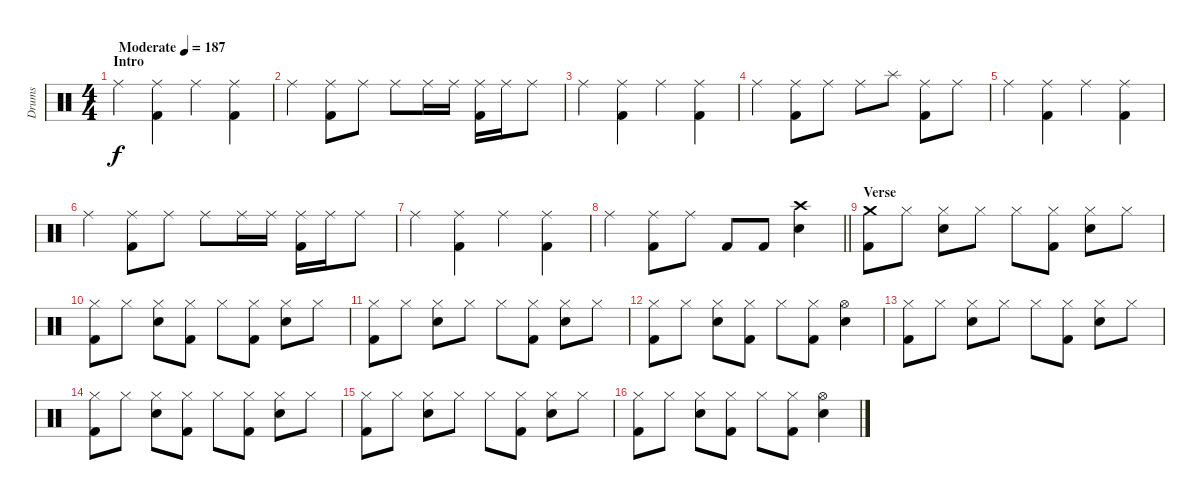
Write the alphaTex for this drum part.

\track ("Drums" "Drums") {instrument percussion}
\staff {score}
\articulation defaults
\ts (4 4)
\section ("" "Intro")
\tempo (187 "Moderate")
\clef neutral
\ks c "Ride (middle)".4{dy f}
("Ride (middle)" "Kick (hit) 2").4 "Ride (middle)".4 ("Ride (middle)" "Kick (hit) 2").4 |
"Ride (middle)".4 ("Ride (middle)" "Kick (hit) 2").8 "Ride (middle)".8 "Ride (middle)".8 "Ride (middle)".16 "Ride (middle)".16 ("Ride (middle)" "Kick (hit) 2").16 "Ride (middle)".16 "Ride (middle)".8 |
"Ride (middle)".4 ("Ride (middle)" "Kick (hit) 2").4 "Ride (middle)".4 ("Ride (middle)" "Kick (hit) 2").4 |
"Ride (middle)".4 ("Ride (middle)" "Kick (hit) 2").8 "Ride (middle)".8 "Ride (middle)".8 "Splash (hit)".8 ("Ride (middle)" "Kick (hit) 2").8 "Ride (middle)".8 |
"Ride (middle)".4 ("Ride (middle)" "Kick (hit) 2").4 "Ride (middle)".4 ("Ride (middle)" "Kick (hit) 2").4 |
"Ride (middle)".4 ("Ride (middle)" "Kick (hit) 2").8 "Ride (middle)".8 "Ride (middle)".8 "Ride (middle)".16 "Ride (middle)".16 ("Ride (middle)" "Kick (hit) 2").16 "Ride (middle)".16 "Ride (middle)".8 |
"Ride (middle)".4 ("Ride (middle)" "Kick (hit) 2").4 "Ride (middle)".4 ("Ride (middle)" "Kick (hit) 2").4 |
\barLineRight lightlight "Ride (middle)".4
("Ride (middle)" "Kick (hit) 2").8 "Ride (middle)".8 "Kick (hit) 2".8 "Kick (hit) 2".8 ("Crash high (hit)" "Electric Snare (hit)").4 |
\section ("" "Verse")
("Crash medium (hit)" "Kick (hit) 2").8 "Hi-Hat (closed)".8 ("Hi-Hat (closed)" "Electric Snare (hit)").8 "Hi-Hat (closed)".8 "Hi-Hat (closed)".8 ("Hi-Hat (closed)" "Kick (hit) 2").8 ("Hi-Hat (closed)" "Electric Snare (hit)").8 "Hi-Hat (closed)".8 |
("Hi-Hat (closed)" "Kick (hit) 2").8 "Hi-Hat (closed)".8 ("Hi-Hat (closed)" "Electric Snare (hit)").8 ("Hi-Hat (closed)" "Kick (hit) 2").8 "Hi-Hat (closed)".8 ("Hi-Hat (closed)" "Kick (hit) 2").8 ("Hi-Hat (closed)" "Electric Snare (hit)").8 "Hi-Hat (closed)".8 |
("Hi-Hat (closed)" "Kick (hit) 2").8 "Hi-Hat (closed)".8 ("Hi-Hat (closed)" "Electric Snare (hit)").8 "Hi-Hat (closed)".8 "Hi-Hat (closed)".8 ("Hi-Hat (closed)" "Kick (hit) 2").8 ("Hi-Hat (closed)" "Electric Snare (hit)").8 "Hi-Hat (closed)".8 |
("Hi-Hat (closed)" "Kick (hit) 2").8 "Hi-Hat (closed)".8 ("Hi-Hat (closed)" "Electric Snare (hit)").8 ("Hi-Hat (closed)" "Kick (hit) 2").8 "Hi-Hat (closed)".8 ("Hi-Hat (closed)" "Kick (hit) 2").8 ("Hi-Hat (open)" "Electric Snare (hit)").4 |
("Hi-Hat (closed)" "Kick (hit) 2").8 "Hi-Hat (closed)".8 ("Hi-Hat (closed)" "Electric Snare (hit)").8 "Hi-Hat (closed)".8 "Hi-Hat (closed)".8 ("Hi-Hat (closed)" "Kick (hit) 2").8 ("Hi-Hat (closed)" "Electric Snare (hit)").8 "Hi-Hat (closed)".8 |
("Hi-Hat (closed)" "Kick (hit) 2").8 "Hi-Hat (closed)".8 ("Hi-Hat (closed)" "Electric Snare (hit)").8 ("Hi-Hat (closed)" "Kick (hit) 2").8 "Hi-Hat (closed)".8 ("Hi-Hat (closed)" "Kick (hit) 2").8 ("Hi-Hat (closed)" "Electric Snare (hit)").8 "Hi-Hat (closed)".8 |
("Hi-Hat (closed)" "Kick (hit) 2").8 "Hi-Hat (closed)".8 ("Hi-Hat (closed)" "Electric Snare (hit)").8 "Hi-Hat (closed)".8 "Hi-Hat (closed)".8 ("Hi-Hat (closed)" "Kick (hit) 2").8 ("Hi-Hat (closed)" "Electric Snare (hit)").8 "Hi-Hat (closed)".8 |
("Hi-Hat (closed)" "Kick (hit) 2").8 "Hi-Hat (closed)".8 ("Hi-Hat (closed)" "Electric Snare (hit)").8 ("Hi-Hat (closed)" "Kick (hit) 2").8 "Hi-Hat (closed)".8 ("Hi-Hat (closed)" "Kick (hit) 2").8 ("Hi-Hat (open)" "Electric Snare (hit)").4
